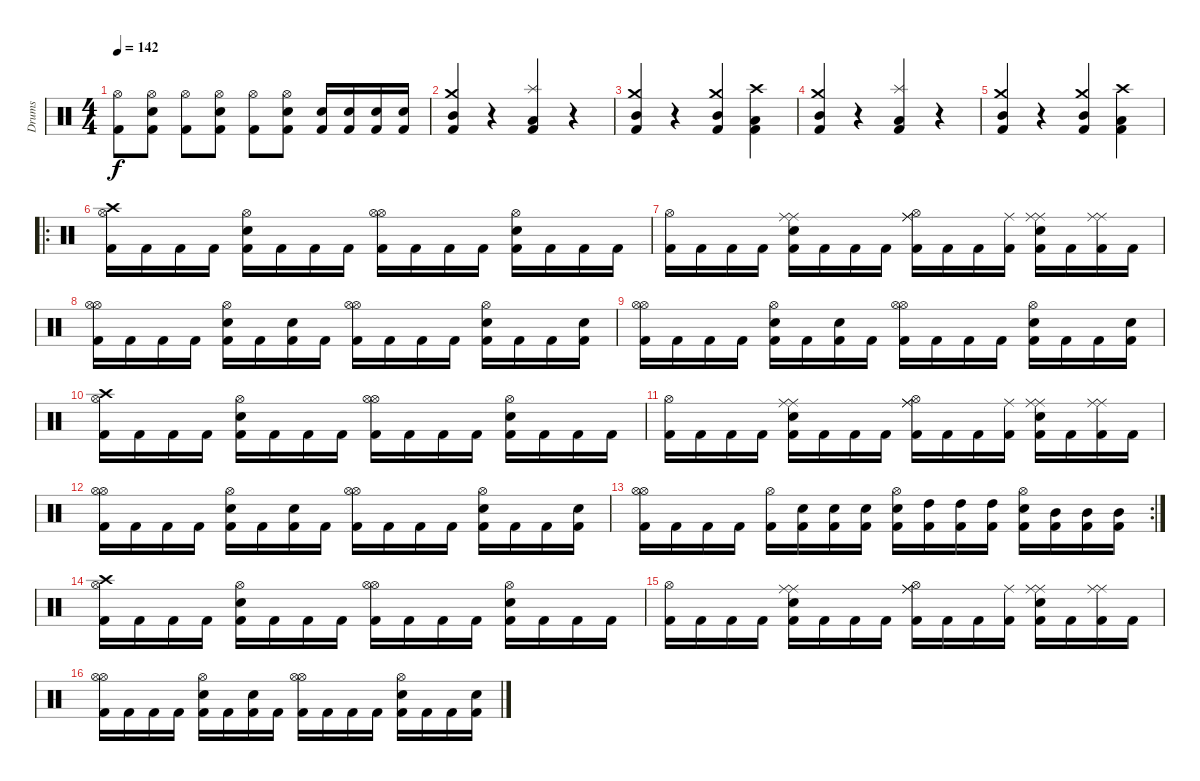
\track ("Drums" "Drums") {instrument percussion}
\staff {score}
\articulation defaults
\ts (4 4)
\tempo 142
\clef neutral
\ks c
("Hi-Hat (open)" "Kick (hit) 2").8{dy f} ("Hi-Hat (open)" "Snare (hit) 2" "Kick (hit) 2").8 ("Hi-Hat (open)" "Kick (hit) 2").8 ("Hi-Hat (open)" "Snare (hit) 2" "Kick (hit) 2").8 ("Hi-Hat (open)" "Kick (hit) 2").8 ("Hi-Hat (open)" "Snare (hit) 2" "Kick (hit) 2").8 ("Snare (hit) 2" "Kick (hit) 2").16 ("Snare (hit) 2" "Kick (hit) 2").16 ("Snare (hit) 2" "Kick (hit) 2").16 ("Snare (hit) 2" "Kick (hit) 2").16 |
("Crash medium (hit)" "Mid Tom (hit)" "Kick (hit) 2").4 r.4 ("Splash (hit)" "Low Tom (hit)" "Kick (hit) 2").4 r.4 |
("Crash medium (hit)" "Mid Tom (hit)" "Kick (hit) 2").4 r.4 ("Crash medium (hit)" "Mid Tom (hit)" "Kick (hit) 2").4 ("Crash high (hit)" "Low Tom (hit)" "Kick (hit) 2").4 |
("Crash medium (hit)" "Mid Tom (hit)" "Kick (hit) 2").4 r.4 ("Splash (hit)" "Low Tom (hit)" "Kick (hit) 2").4 r.4 |
("Crash medium (hit)" "Mid Tom (hit)" "Kick (hit) 2").4 r.4 ("Crash medium (hit)" "Mid Tom (hit)" "Kick (hit) 2").4 ("Crash high (hit)" "Low Tom (hit)" "Kick (hit) 2").4 |
\ro
("Crash high (hit)" "Hi-Hat (open)" "Kick (hit) 2").16 "Kick (hit) 2".16 "Kick (hit) 2".16 "Kick (hit) 2".16 ("Hi-Hat (open)" "Electric Snare (hit)" "Kick (hit) 2").16 "Kick (hit) 2".16 "Kick (hit) 2".16 "Kick (hit) 2".16 ("Hi-Hat (open)" "Hi-Hat (open)" "Kick (hit) 2").16 "Kick (hit) 2".16 "Kick (hit) 2".16 "Kick (hit) 2".16 ("Hi-Hat (open)" "Electric Snare (hit)" "Kick (hit) 2").16 "Kick (hit) 2".16 "Kick (hit) 2".16 "Kick (hit) 2".16 |
("Hi-Hat (open)" "Kick (hit) 2").16 "Kick (hit) 2".16 "Kick (hit) 2".16 "Kick (hit) 2".16 ("Ride (middle)" "Ride (middle)" "Electric Snare (hit)" "Kick (hit) 2").16 "Kick (hit) 2".16 "Kick (hit) 2".16 "Kick (hit) 2".16 ("Ride (middle)" "Ride (middle)" "Hi-Hat (open)" "Kick (hit) 2").16 "Kick (hit) 2".16 "Kick (hit) 2".16 ("Ride (middle)" "Kick (hit) 2").16 ("Ride (middle)" "Ride (middle)" "Electric Snare (hit)" "Kick (hit) 2").16 "Kick (hit) 2".16 ("Ride (middle)" "Ride (middle)" "Kick (hit) 2").16 "Kick (hit) 2".16 |
("Hi-Hat (open)" "Hi-Hat (open)" "Kick (hit) 2").16 "Kick (hit) 2".16 "Kick (hit) 2".16 "Kick (hit) 2".16 ("Hi-Hat (open)" "Electric Snare (hit)" "Kick (hit) 2").16 "Kick (hit) 2".16 ("Electric Snare (hit)" "Kick (hit) 2").16 "Kick (hit) 2".16 ("Hi-Hat (open)" "Hi-Hat (open)" "Kick (hit) 2").16 "Kick (hit) 2".16 "Kick (hit) 2".16 "Kick (hit) 2".16 ("Hi-Hat (open)" "Electric Snare (hit)" "Kick (hit) 2").16 "Kick (hit) 2".16 "Kick (hit) 2".16 ("Electric Snare (hit)" "Kick (hit) 2").16 |
("Hi-Hat (open)" "Hi-Hat (open)" "Kick (hit) 2").16 "Kick (hit) 2".16 "Kick (hit) 2".16 "Kick (hit) 2".16 ("Hi-Hat (open)" "Electric Snare (hit)" "Kick (hit) 2").16 "Kick (hit) 2".16 ("Electric Snare (hit)" "Kick (hit) 2").16 "Kick (hit) 2".16 ("Hi-Hat (open)" "Hi-Hat (open)" "Kick (hit) 2").16 "Kick (hit) 2".16 "Kick (hit) 2".16 "Kick (hit) 2".16 ("Hi-Hat (open)" "Electric Snare (hit)" "Kick (hit) 2").16 "Kick (hit) 2".16 "Kick (hit) 2".16 ("Electric Snare (hit)" "Kick (hit) 2").16 |
("Crash high (hit)" "Hi-Hat (open)" "Kick (hit) 2").16 "Kick (hit) 2".16 "Kick (hit) 2".16 "Kick (hit) 2".16 ("Hi-Hat (open)" "Electric Snare (hit)" "Kick (hit) 2").16 "Kick (hit) 2".16 "Kick (hit) 2".16 "Kick (hit) 2".16 ("Hi-Hat (open)" "Hi-Hat (open)" "Kick (hit) 2").16 "Kick (hit) 2".16 "Kick (hit) 2".16 "Kick (hit) 2".16 ("Hi-Hat (open)" "Electric Snare (hit)" "Kick (hit) 2").16 "Kick (hit) 2".16 "Kick (hit) 2".16 "Kick (hit) 2".16 |
("Hi-Hat (open)" "Kick (hit) 2").16 "Kick (hit) 2".16 "Kick (hit) 2".16 "Kick (hit) 2".16 ("Ride (middle)" "Ride (middle)" "Electric Snare (hit)" "Kick (hit) 2").16 "Kick (hit) 2".16 "Kick (hit) 2".16 "Kick (hit) 2".16 ("Ride (middle)" "Ride (middle)" "Hi-Hat (open)" "Kick (hit) 2").16 "Kick (hit) 2".16 "Kick (hit) 2".16 ("Ride (middle)" "Kick (hit) 2").16 ("Ride (middle)" "Ride (middle)" "Electric Snare (hit)" "Kick (hit) 2").16 "Kick (hit) 2".16 ("Ride (middle)" "Ride (middle)" "Kick (hit) 2").16 "Kick (hit) 2".16 |
("Hi-Hat (open)" "Hi-Hat (open)" "Kick (hit) 2").16 "Kick (hit) 2".16 "Kick (hit) 2".16 "Kick (hit) 2".16 ("Hi-Hat (open)" "Electric Snare (hit)" "Kick (hit) 2").16 "Kick (hit) 2".16 ("Electric Snare (hit)" "Kick (hit) 2").16 "Kick (hit) 2".16 ("Hi-Hat (open)" "Hi-Hat (open)" "Kick (hit) 2").16 "Kick (hit) 2".16 "Kick (hit) 2".16 "Kick (hit) 2".16 ("Hi-Hat (open)" "Electric Snare (hit)" "Kick (hit) 2").16 "Kick (hit) 2".16 "Kick (hit) 2".16 ("Electric Snare (hit)" "Kick (hit) 2").16 |
\rc 2
("Hi-Hat (open)" "Hi-Hat (open)" "Kick (hit) 2").16 "Kick (hit) 2".16 "Kick (hit) 2".16 "Kick (hit) 2".16 ("Hi-Hat (open)" "Kick (hit) 2").16 ("Electric Snare (hit)" "Kick (hit) 2").16 ("Electric Snare (hit)" "Kick (hit) 2").16 ("Electric Snare (hit)" "Kick (hit) 2").16 ("Hi-Hat (open)" "Electric Snare (hit)" "Kick (hit) 2").16 ("High Tom (hit)" "Kick (hit) 2").16 ("High Tom (hit)" "Kick (hit) 2").16 ("High Tom (hit)" "Kick (hit) 2").16 ("Hi-Hat (open)" "Electric Snare (hit)" "Kick (hit) 2").16 ("Mid Tom (hit)" "Kick (hit) 2").16 ("Mid Tom (hit)" "Kick (hit) 2").16 ("Mid Tom (hit)" "Kick (hit) 2").16 |
("Crash high (hit)" "Hi-Hat (open)" "Kick (hit) 2").16 "Kick (hit) 2".16 "Kick (hit) 2".16 "Kick (hit) 2".16 ("Hi-Hat (open)" "Electric Snare (hit)" "Kick (hit) 2").16 "Kick (hit) 2".16 "Kick (hit) 2".16 "Kick (hit) 2".16 ("Hi-Hat (open)" "Hi-Hat (open)" "Kick (hit) 2").16 "Kick (hit) 2".16 "Kick (hit) 2".16 "Kick (hit) 2".16 ("Hi-Hat (open)" "Electric Snare (hit)" "Kick (hit) 2").16 "Kick (hit) 2".16 "Kick (hit) 2".16 "Kick (hit) 2".16 |
("Hi-Hat (open)" "Kick (hit) 2").16 "Kick (hit) 2".16 "Kick (hit) 2".16 "Kick (hit) 2".16 ("Ride (middle)" "Ride (middle)" "Electric Snare (hit)" "Kick (hit) 2").16 "Kick (hit) 2".16 "Kick (hit) 2".16 "Kick (hit) 2".16 ("Ride (middle)" "Ride (middle)" "Hi-Hat (open)" "Kick (hit) 2").16 "Kick (hit) 2".16 "Kick (hit) 2".16 ("Ride (middle)" "Kick (hit) 2").16 ("Ride (middle)" "Ride (middle)" "Electric Snare (hit)" "Kick (hit) 2").16 "Kick (hit) 2".16 ("Ride (middle)" "Ride (middle)" "Kick (hit) 2").16 "Kick (hit) 2".16 |
("Hi-Hat (open)" "Hi-Hat (open)" "Kick (hit) 2").16 "Kick (hit) 2".16 "Kick (hit) 2".16 "Kick (hit) 2".16 ("Hi-Hat (open)" "Electric Snare (hit)" "Kick (hit) 2").16 "Kick (hit) 2".16 ("Electric Snare (hit)" "Kick (hit) 2").16 "Kick (hit) 2".16 ("Hi-Hat (open)" "Hi-Hat (open)" "Kick (hit) 2").16 "Kick (hit) 2".16 "Kick (hit) 2".16 "Kick (hit) 2".16 ("Hi-Hat (open)" "Electric Snare (hit)" "Kick (hit) 2").16 "Kick (hit) 2".16 "Kick (hit) 2".16 ("Electric Snare (hit)" "Kick (hit) 2").16
